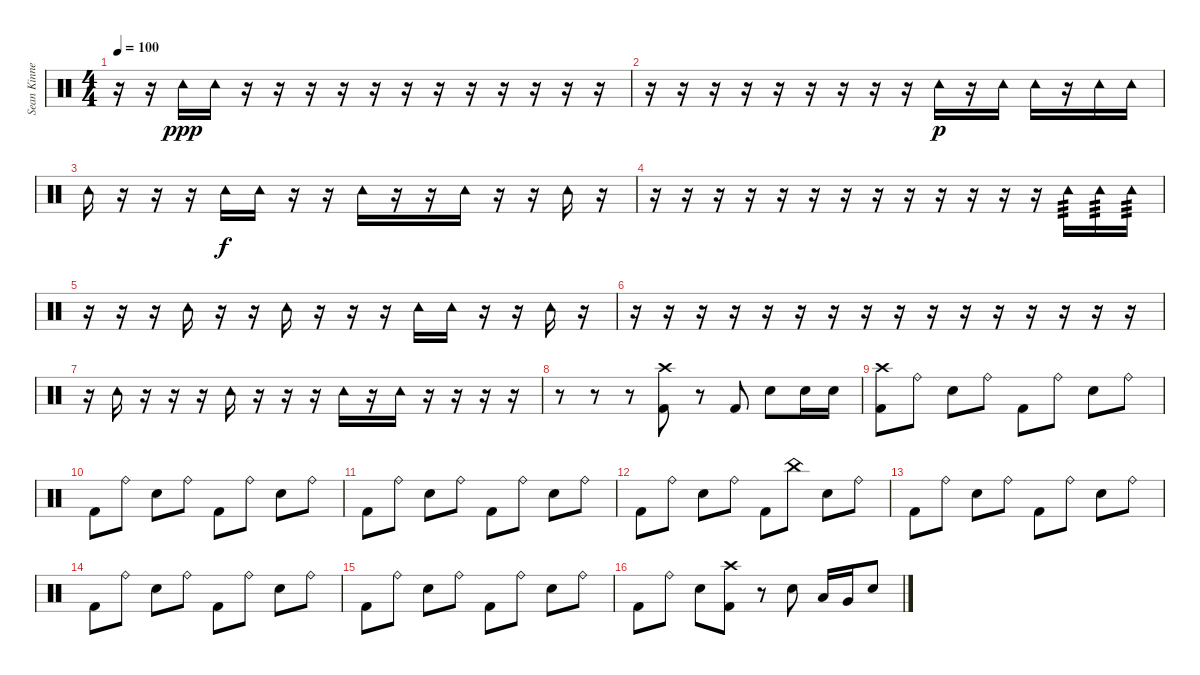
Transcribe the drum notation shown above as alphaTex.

\track ("Sean Kinney" "Sean Kinne") {instrument percussion}
\staff {score}
\articulation defaults
\ts (4 4)
\tempo 100
\clef neutral
\ks c
r.16{dy ppp balance 16} r.16 "Tambourine (hit)".16 "Tambourine (hit)".16 r.16 r.16 r.16 r.16 r.16 r.16 r.16 r.16 r.16 r.16 r.16 r.16 |
r.16{balance 0} r.16 r.16 r.16 r.16 r.16 r.16 r.16 r.16 "Tambourine (hit)".16{dy p} r.16 "Tambourine (hit)".16 "Tambourine (hit)".16 r.16 "Tambourine (hit)".16 "Tambourine (hit)".16 |
"Tambourine (hit)".16 r.16{balance 16} r.16 r.16 "Tambourine (hit)".16{dy f} "Tambourine (hit)".16 r.16 r.16 "Tambourine (hit)".16 r.16 r.16 "Tambourine (hit)".16 r.16 r.16 "Tambourine (hit)".16 r.16 |
r.16 r.16 r.16 r.16 r.16 r.16 r.16 r.16 r.16 r.16 r.16 r.16 r.16 "Tambourine (hit)".16{tp 3} "Tambourine (hit)".16{tp 3} "Tambourine (hit)".16{tp 3} |
r.16{balance 0} r.16 r.16 "Tambourine (hit)".16 r.16 r.16 "Tambourine (hit)".16 r.16 r.16 r.16 "Tambourine (hit)".16 "Tambourine (hit)".16 r.16 r.16 "Tambourine (hit)".16 r.16 |
r.16 r.16 r.16 r.16 r.16 r.16 r.16 r.16 r.16 r.16 r.16 r.16 r.16 r.16 r.16 r.16 |
r.16{balance 16} "Tambourine (hit)".16 r.16 r.16 r.16 "Tambourine (hit)".16 r.16 r.16 r.16 "Tambourine (hit)".16 r.16 "Tambourine (hit)".16 r.16 r.16 r.16 r.16 |
r.8{volume 14 balance 8} r.8 r.8 ("Crash high (hit)" "Kick (hit) 2").8 r.8 "Kick (hit) 2".8 "Snare (hit) 2".8 "Snare (hit) 2".16 "Snare (hit) 2".16 |
("Crash high (hit)" "Kick (hit) 2").8 "Ride (bell)".8 "Snare (hit) 2".8 "Ride (bell)".8 "Kick (hit) 2".8 "Ride (bell)".8 "Snare (hit) 2".8 "Ride (bell)".8 |
"Kick (hit) 2".8 "Ride (bell)".8 "Snare (hit) 2".8 "Ride (bell)".8 "Kick (hit) 2".8 "Ride (bell)".8 "Snare (hit) 2".8 "Ride (bell)".8 |
"Kick (hit) 2".8 "Ride (bell)".8 "Snare (hit) 2".8 "Ride (bell)".8 "Kick (hit) 2".8 "Ride (bell)".8 "Snare (hit) 2".8 "Ride (bell)".8 |
"Kick (hit) 2".8 "Ride (bell)".8 "Snare (hit) 2".8 "Ride (bell)".8 "Kick (hit) 2".8 "China (hit)".8 "Snare (hit) 2".8 "Ride (bell)".8 |
"Kick (hit) 2".8 "Ride (bell)".8 "Snare (hit) 2".8 "Ride (bell)".8 "Kick (hit) 2".8 "Ride (bell)".8 "Snare (hit) 2".8 "Ride (bell)".8 |
"Kick (hit) 2".8 "Ride (bell)".8 "Snare (hit) 2".8 "Ride (bell)".8 "Kick (hit) 2".8 "Ride (bell)".8 "Snare (hit) 2".8 "Ride (bell)".8 |
"Kick (hit) 2".8 "Ride (bell)".8 "Snare (hit) 2".8 "Ride (bell)".8 "Kick (hit) 2".8 "Ride (bell)".8 "Snare (hit) 2".8 "Ride (bell)".8 |
"Kick (hit) 2".8 "Ride (bell)".8 "Snare (hit) 2".8 ("Crash high (hit)" "Kick (hit) 2").8 r.8 "Snare (hit) 2".8 "Low Tom (hit)".16 "Very Low Tom (hit)".16 "Snare (hit) 2".8
